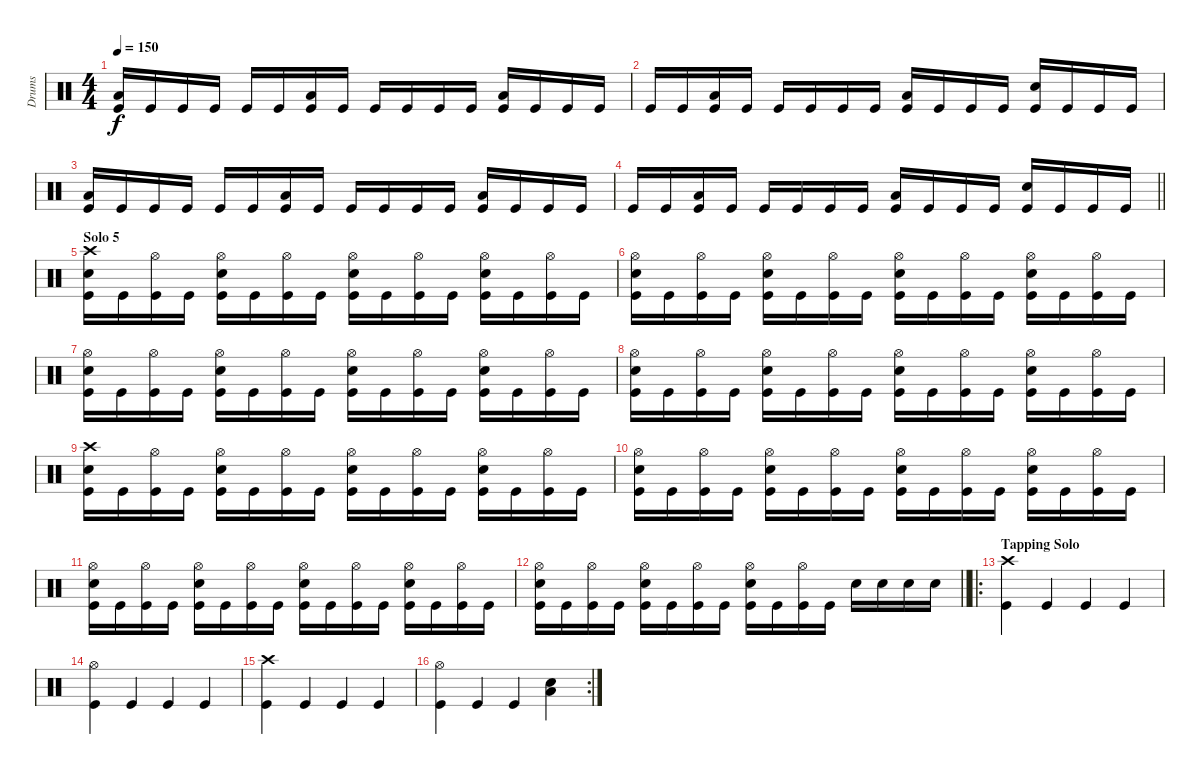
\track ("Drums" "Drums") {instrument percussion}
\staff {score}
\articulation defaults
\ts (4 4)
\tempo 150
\clef neutral
\ks c
("Low Floor Tom (hit)" "Kick (hit)").16{dy f} "Kick (hit)".16 "Kick (hit)".16 "Kick (hit)".16 "Kick (hit)".16 "Kick (hit)".16 ("Low Floor Tom (hit)" "Kick (hit)").16 "Kick (hit)".16 "Kick (hit)".16 "Kick (hit)".16 "Kick (hit)".16 "Kick (hit)".16 ("Low Floor Tom (hit)" "Kick (hit)").16 "Kick (hit)".16 "Kick (hit)".16 "Kick (hit)".16 |
"Kick (hit)".16 "Kick (hit)".16 ("Low Floor Tom (hit)" "Kick (hit)").16 "Kick (hit)".16 "Kick (hit)".16 "Kick (hit)".16 "Kick (hit)".16 "Kick (hit)".16 ("Low Floor Tom (hit)" "Kick (hit)").16 "Kick (hit)".16 "Kick (hit)".16 "Kick (hit)".16 ("Snare (hit) 2" "Kick (hit)").16 "Kick (hit)".16 "Kick (hit)".16 "Kick (hit)".16 |
("Low Floor Tom (hit)" "Kick (hit)").16 "Kick (hit)".16 "Kick (hit)".16 "Kick (hit)".16 "Kick (hit)".16 "Kick (hit)".16 ("Low Floor Tom (hit)" "Kick (hit)").16 "Kick (hit)".16 "Kick (hit)".16 "Kick (hit)".16 "Kick (hit)".16 "Kick (hit)".16 ("Low Floor Tom (hit)" "Kick (hit)").16 "Kick (hit)".16 "Kick (hit)".16 "Kick (hit)".16 |
\barLineRight lightlight "Kick (hit)".16 "Kick (hit)".16
("Low Floor Tom (hit)" "Kick (hit)").16 "Kick (hit)".16 "Kick (hit)".16 "Kick (hit)".16 "Kick (hit)".16 "Kick (hit)".16 ("Low Floor Tom (hit)" "Kick (hit)").16 "Kick (hit)".16 "Kick (hit)".16 "Kick (hit)".16 ("Snare (hit) 2" "Kick (hit)").16 "Kick (hit)".16 "Kick (hit)".16 "Kick (hit)".16 |
\section ("" "Solo 5")
("Crash high (hit)" "Snare (hit) 2" "Kick (hit)").16 "Kick (hit)".16 ("Hi-Hat (open)" "Kick (hit)").16 "Kick (hit)".16 ("Hi-Hat (open)" "Snare (hit) 2" "Kick (hit)").16 "Kick (hit)".16 ("Hi-Hat (open)" "Kick (hit)").16 "Kick (hit)".16 ("Hi-Hat (open)" "Snare (hit) 2" "Kick (hit)").16 "Kick (hit)".16 ("Hi-Hat (open)" "Kick (hit)").16 "Kick (hit)".16 ("Hi-Hat (open)" "Snare (hit) 2" "Kick (hit)").16 "Kick (hit)".16 ("Hi-Hat (open)" "Kick (hit)").16 "Kick (hit)".16 |
("Hi-Hat (open)" "Snare (hit) 2" "Kick (hit)").16 "Kick (hit)".16 ("Hi-Hat (open)" "Kick (hit)").16 "Kick (hit)".16 ("Hi-Hat (open)" "Snare (hit) 2" "Kick (hit)").16 "Kick (hit)".16 ("Hi-Hat (open)" "Kick (hit)").16 "Kick (hit)".16 ("Hi-Hat (open)" "Snare (hit) 2" "Kick (hit)").16 "Kick (hit)".16 ("Hi-Hat (open)" "Kick (hit)").16 "Kick (hit)".16 ("Hi-Hat (open)" "Snare (hit) 2" "Kick (hit)").16 "Kick (hit)".16 ("Hi-Hat (open)" "Kick (hit)").16 "Kick (hit)".16 |
("Hi-Hat (open)" "Snare (hit) 2" "Kick (hit)").16 "Kick (hit)".16 ("Hi-Hat (open)" "Kick (hit)").16 "Kick (hit)".16 ("Hi-Hat (open)" "Snare (hit) 2" "Kick (hit)").16 "Kick (hit)".16 ("Hi-Hat (open)" "Kick (hit)").16 "Kick (hit)".16 ("Hi-Hat (open)" "Snare (hit) 2" "Kick (hit)").16 "Kick (hit)".16 ("Hi-Hat (open)" "Kick (hit)").16 "Kick (hit)".16 ("Hi-Hat (open)" "Snare (hit) 2" "Kick (hit)").16 "Kick (hit)".16 ("Hi-Hat (open)" "Kick (hit)").16 "Kick (hit)".16 |
("Hi-Hat (open)" "Snare (hit) 2" "Kick (hit)").16 "Kick (hit)".16 ("Hi-Hat (open)" "Kick (hit)").16 "Kick (hit)".16 ("Hi-Hat (open)" "Snare (hit) 2" "Kick (hit)").16 "Kick (hit)".16 ("Hi-Hat (open)" "Kick (hit)").16 "Kick (hit)".16 ("Hi-Hat (open)" "Snare (hit) 2" "Kick (hit)").16 "Kick (hit)".16 ("Hi-Hat (open)" "Kick (hit)").16 "Kick (hit)".16 ("Hi-Hat (open)" "Snare (hit) 2" "Kick (hit)").16 "Kick (hit)".16 ("Hi-Hat (open)" "Kick (hit)").16 "Kick (hit)".16 |
("Crash high (hit)" "Snare (hit) 2" "Kick (hit)").16 "Kick (hit)".16 ("Hi-Hat (open)" "Kick (hit)").16 "Kick (hit)".16 ("Hi-Hat (open)" "Snare (hit) 2" "Kick (hit)").16 "Kick (hit)".16 ("Hi-Hat (open)" "Kick (hit)").16 "Kick (hit)".16 ("Hi-Hat (open)" "Snare (hit) 2" "Kick (hit)").16 "Kick (hit)".16 ("Hi-Hat (open)" "Kick (hit)").16 "Kick (hit)".16 ("Hi-Hat (open)" "Snare (hit) 2" "Kick (hit)").16 "Kick (hit)".16 ("Hi-Hat (open)" "Kick (hit)").16 "Kick (hit)".16 |
("Hi-Hat (open)" "Snare (hit) 2" "Kick (hit)").16 "Kick (hit)".16 ("Hi-Hat (open)" "Kick (hit)").16 "Kick (hit)".16 ("Hi-Hat (open)" "Snare (hit) 2" "Kick (hit)").16 "Kick (hit)".16 ("Hi-Hat (open)" "Kick (hit)").16 "Kick (hit)".16 ("Hi-Hat (open)" "Snare (hit) 2" "Kick (hit)").16 "Kick (hit)".16 ("Hi-Hat (open)" "Kick (hit)").16 "Kick (hit)".16 ("Hi-Hat (open)" "Snare (hit) 2" "Kick (hit)").16 "Kick (hit)".16 ("Hi-Hat (open)" "Kick (hit)").16 "Kick (hit)".16 |
("Hi-Hat (open)" "Snare (hit) 2" "Kick (hit)").16 "Kick (hit)".16 ("Hi-Hat (open)" "Kick (hit)").16 "Kick (hit)".16 ("Hi-Hat (open)" "Snare (hit) 2" "Kick (hit)").16 "Kick (hit)".16 ("Hi-Hat (open)" "Kick (hit)").16 "Kick (hit)".16 ("Hi-Hat (open)" "Snare (hit) 2" "Kick (hit)").16 "Kick (hit)".16 ("Hi-Hat (open)" "Kick (hit)").16 "Kick (hit)".16 ("Hi-Hat (open)" "Snare (hit) 2" "Kick (hit)").16 "Kick (hit)".16 ("Hi-Hat (open)" "Kick (hit)").16 "Kick (hit)".16 |
\barLineRight lightlight
("Hi-Hat (open)" "Snare (hit) 2" "Kick (hit)").16 "Kick (hit)".16 ("Hi-Hat (open)" "Kick (hit)").16 "Kick (hit)".16 ("Hi-Hat (open)" "Snare (hit) 2" "Kick (hit)").16 "Kick (hit)".16 ("Hi-Hat (open)" "Kick (hit)").16 "Kick (hit)".16 ("Hi-Hat (open)" "Snare (hit) 2" "Kick (hit)").16 "Kick (hit)".16 ("Hi-Hat (open)" "Kick (hit)").16 "Kick (hit)".16 "Snare (hit) 2".16 "Snare (hit) 2".16 "Snare (hit) 2".16 "Snare (hit) 2".16 |
\ro
\section ("" "Tapping Solo")
("Crash high (hit)" "Kick (hit)").4 "Kick (hit)".4 "Kick (hit)".4 "Kick (hit)".4 |
("Hi-Hat (open)" "Kick (hit)").4 "Kick (hit)".4 "Kick (hit)".4 "Kick (hit)".4 |
("Crash high (hit)" "Kick (hit)").4 "Kick (hit)".4 "Kick (hit)".4 "Kick (hit)".4 |
\rc 2
("Hi-Hat (open)" "Kick (hit)").4 "Kick (hit)".4 "Kick (hit)".4 ("Low Floor Tom (hit)" "Snare (hit) 2").4
